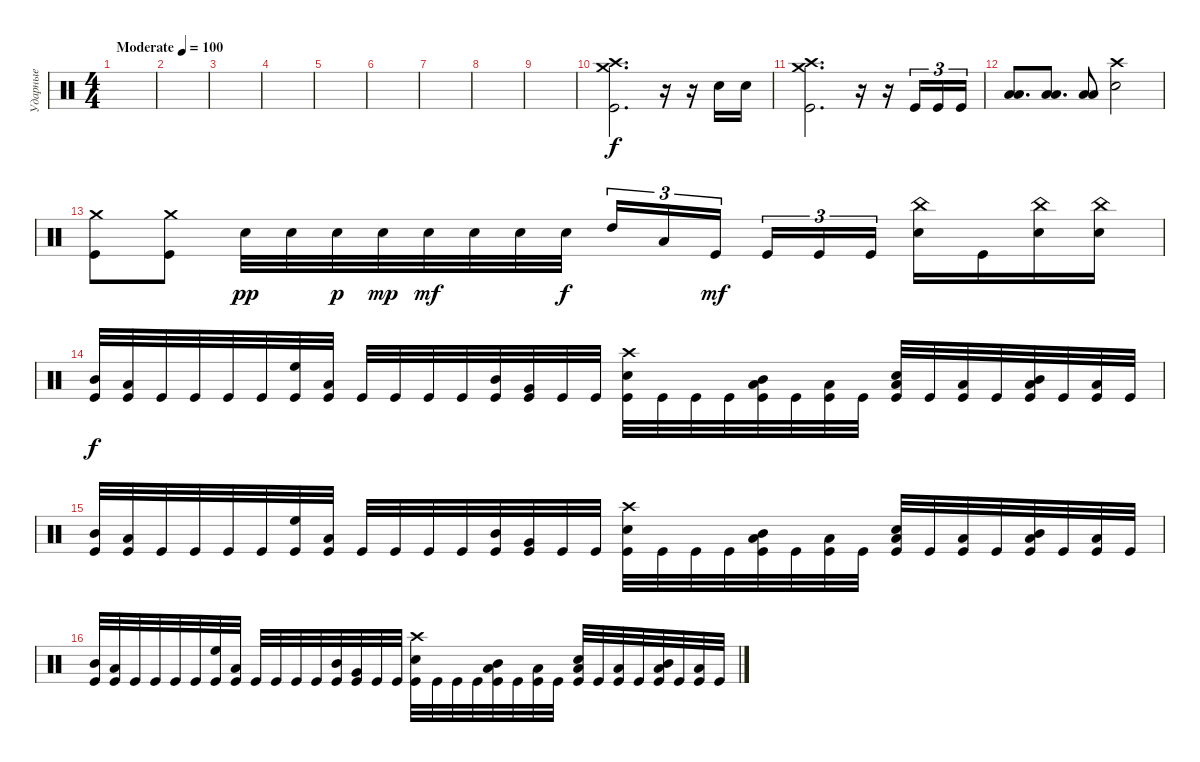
\track ("Ударные" "Ударные") {instrument percussion}
\staff {score}
\articulation defaults
\ts (4 4)
\tempo (100 "Moderate")
\clef neutral
\ks c
|
|
|
|
|
|
|
|
|
("Crash medium (hit)" "Crash high (hit)" "Kick (hit)").2{d} r.16 r.16 "Snare (hit) 2".16 "Snare (hit) 2".16 |
("Crash medium (hit)" "Crash high (hit)" "Kick (hit)").2{d} r.16 r.16 "Kick (hit)".16{tu (3 2)} "Kick (hit)".16{tu (3 2)} "Kick (hit)".16{tu (3 2)} |
("Low Tom (hit)" "Low Floor Tom (hit)").8{d} ("Low Tom (hit)" "Low Floor Tom (hit)").8{d} ("Low Tom (hit)" "Low Floor Tom (hit)").8 ("Crash high (hit)" "Snare (hit) 2").2 |
("Crash medium (hit)" "Kick (hit)").8 ("Crash medium (hit)" "Kick (hit)").8 "Snare (hit) 2".32{dy pp} "Snare (hit) 2".32 "Snare (hit) 2".32{dy p} "Snare (hit) 2".32{dy mp} "Snare (hit) 2".32{dy mf} "Snare (hit) 2".32 "Snare (hit) 2".32 "Snare (hit) 2".32{dy f} "High Tom (hit)".16{tu (3 2)} "Low Tom (hit)".16{tu (3 2)} "Kick (hit)".16{tu (3 2) dy mf beam splitsecondary} "Kick (hit)".16{tu (3 2)} "Kick (hit)".16{tu (3 2)} "Kick (hit)".16{tu (3 2)} ("China (hit)" "Snare (hit) 2").16 "Kick (hit)".16 ("China (hit)" "Snare (hit) 2").16 ("Snare (hit) 2" "China (hit)").16 |
("Mid Tom (hit)" "Kick (hit)").32{dy f} ("Low Tom (hit)" "Kick (hit)").32 "Kick (hit)".32 "Kick (hit)".32 "Kick (hit)".32 "Kick (hit)".32 ("High Floor Tom (hit)" "Kick (hit)").32 ("Low Tom (hit)" "Kick (hit)").32 "Kick (hit)".32 "Kick (hit)".32 "Kick (hit)".32 "Kick (hit)".32 ("Mid Tom (hit)" "Kick (hit)").32 ("Very Low Tom (hit)" "Kick (hit)").32 "Kick (hit)".32 "Kick (hit)".32 ("Crash high (hit)" "Snare (hit) 2" "Kick (hit)").32 "Kick (hit)".32 "Kick (hit)".32 "Kick (hit)".32 ("Low Floor Tom (hit)" "Mid Tom (hit)" "Kick (hit)").32 "Kick (hit)".32 ("Low Floor Tom (hit)" "Kick (hit)").32 "Kick (hit)".32 ("Low Floor Tom (hit)" "Snare (hit) 2" "Kick (hit)").32 "Kick (hit)".32 ("Low Floor Tom (hit)" "Kick (hit)").32 "Kick (hit)".32 ("Low Floor Tom (hit)" "Mid Tom (hit)" "Kick (hit)").32 "Kick (hit)".32 ("Low Floor Tom (hit)" "Kick (hit)").32 "Kick (hit)".32 |
("Mid Tom (hit)" "Kick (hit)").32 ("Low Tom (hit)" "Kick (hit)").32 "Kick (hit)".32 "Kick (hit)".32 "Kick (hit)".32 "Kick (hit)".32 ("High Floor Tom (hit)" "Kick (hit)").32 ("Low Tom (hit)" "Kick (hit)").32 "Kick (hit)".32 "Kick (hit)".32 "Kick (hit)".32 "Kick (hit)".32 ("Mid Tom (hit)" "Kick (hit)").32 ("Very Low Tom (hit)" "Kick (hit)").32 "Kick (hit)".32 "Kick (hit)".32 ("Crash high (hit)" "Snare (hit) 2" "Kick (hit)").32 "Kick (hit)".32 "Kick (hit)".32 "Kick (hit)".32 ("Low Floor Tom (hit)" "Mid Tom (hit)" "Kick (hit)").32 "Kick (hit)".32 ("Low Floor Tom (hit)" "Kick (hit)").32 "Kick (hit)".32 ("Low Floor Tom (hit)" "Snare (hit) 2" "Kick (hit)").32 "Kick (hit)".32 ("Low Floor Tom (hit)" "Kick (hit)").32 "Kick (hit)".32 ("Low Floor Tom (hit)" "Mid Tom (hit)" "Kick (hit)").32 "Kick (hit)".32 ("Low Floor Tom (hit)" "Kick (hit)").32 "Kick (hit)".32 |
("Mid Tom (hit)" "Kick (hit)").32 ("Low Tom (hit)" "Kick (hit)").32 "Kick (hit)".32 "Kick (hit)".32 "Kick (hit)".32 "Kick (hit)".32 ("High Floor Tom (hit)" "Kick (hit)").32 ("Low Tom (hit)" "Kick (hit)").32 "Kick (hit)".32 "Kick (hit)".32 "Kick (hit)".32 "Kick (hit)".32 ("Mid Tom (hit)" "Kick (hit)").32 ("Very Low Tom (hit)" "Kick (hit)").32 "Kick (hit)".32 "Kick (hit)".32 ("Crash high (hit)" "Snare (hit) 2" "Kick (hit)").32 "Kick (hit)".32 "Kick (hit)".32 "Kick (hit)".32 ("Low Floor Tom (hit)" "Mid Tom (hit)" "Kick (hit)").32 "Kick (hit)".32 ("Low Floor Tom (hit)" "Kick (hit)").32 "Kick (hit)".32 ("Low Floor Tom (hit)" "Snare (hit) 2" "Kick (hit)").32 "Kick (hit)".32 ("Low Floor Tom (hit)" "Kick (hit)").32 "Kick (hit)".32 ("Low Floor Tom (hit)" "Mid Tom (hit)" "Kick (hit)").32 "Kick (hit)".32 ("Low Floor Tom (hit)" "Kick (hit)").32 "Kick (hit)".32
